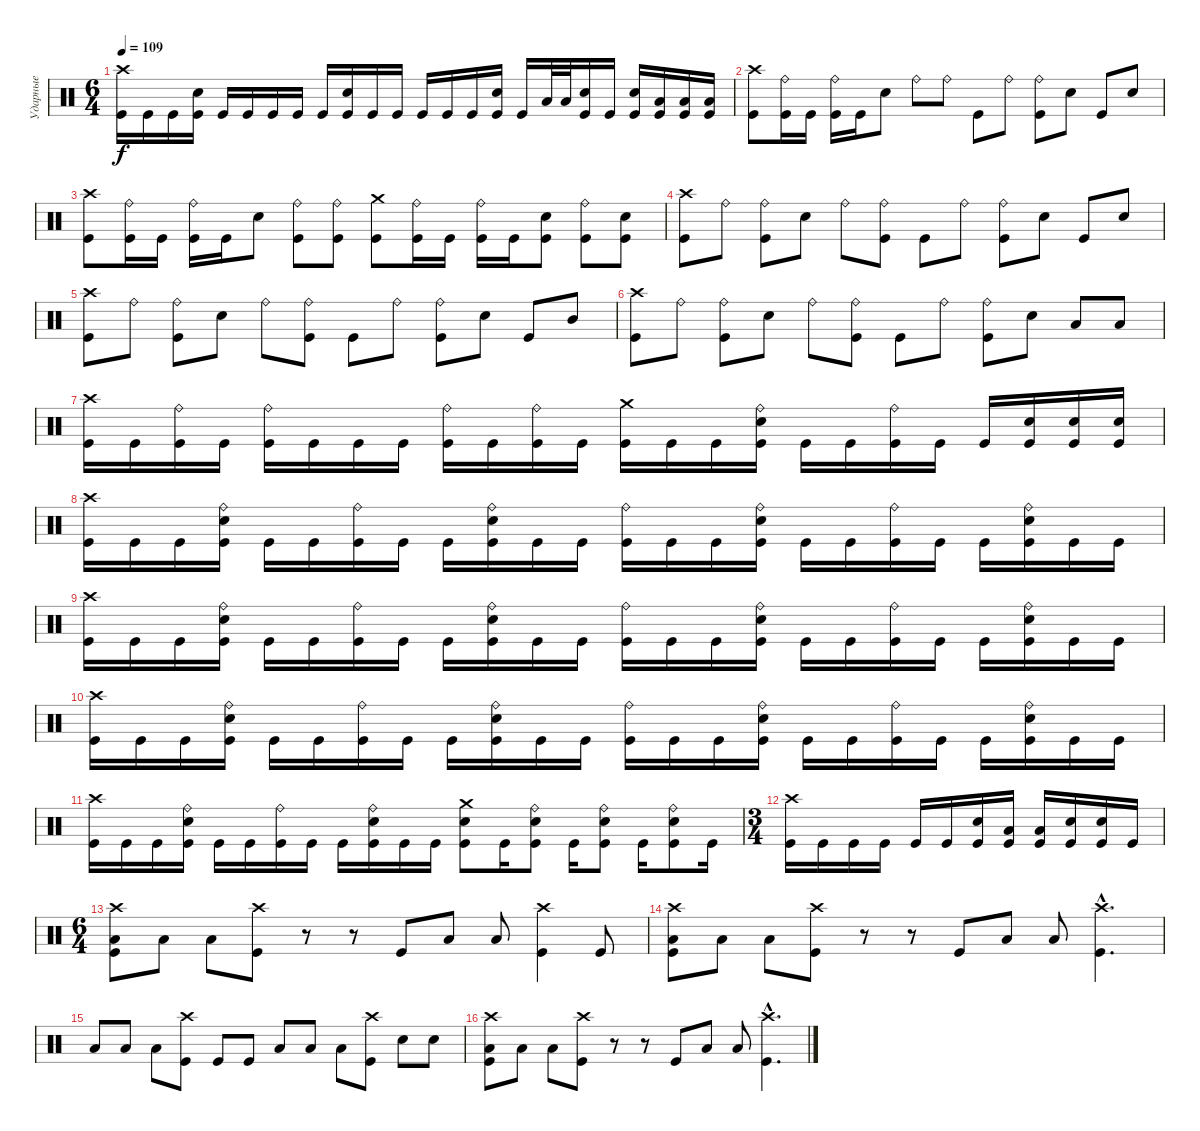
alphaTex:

\track ("Ударные" "Ударные") {instrument percussion}
\staff {score}
\articulation defaults
\ts (6 4)
\tempo 109
\clef neutral
\ks c
("Crash high (hit)" "Kick (hit)").16{dy f} "Kick (hit)".16 "Kick (hit)".16 ("Electric Snare (hit)" "Kick (hit)").16 "Kick (hit)".16 "Kick (hit)".16 "Kick (hit)".16 "Kick (hit)".16 "Kick (hit)".16 ("Electric Snare (hit)" "Kick (hit)").16 "Kick (hit)".16 "Kick (hit)".16 "Kick (hit)".16 "Kick (hit)".16 "Kick (hit)".16 ("Electric Snare (hit)" "Kick (hit)").16 "Kick (hit)".16 "Low Tom (hit)".32 "Low Tom (hit)".32 ("Electric Snare (hit)" "Kick (hit)").16 "Kick (hit)".16 ("Electric Snare (hit)" "Kick (hit)").16 ("Low Tom (hit)" "Kick (hit)").16 ("Low Tom (hit)" "Kick (hit)").16 ("Low Tom (hit)" "Kick (hit)").16 |
("Kick (hit)" "Crash high (hit)").8 ("Ride (bell)" "Kick (hit)").16 "Kick (hit)".16 ("Ride (bell)" "Kick (hit)").16 "Kick (hit)".16 "Electric Snare (hit)".8 "Ride (bell)".8 "Ride (bell)".8 "Kick (hit)".8 "Ride (bell)".8 ("Ride (bell)" "Kick (hit)").8 "Electric Snare (hit)".8 "Kick (hit)".8 "Electric Snare (hit)".8 |
("Crash high (hit)" "Kick (hit)").8 ("Ride (bell)" "Kick (hit)").16 "Kick (hit)".16 ("Ride (bell)" "Kick (hit)").16 "Kick (hit)".16 "Electric Snare (hit)".8 ("Ride (bell)" "Kick (hit)").8 ("Ride (bell)" "Kick (hit)").8 ("Crash medium (hit)" "Kick (hit)").8 ("Ride (bell)" "Kick (hit)").16 "Kick (hit)".16 ("Ride (bell)" "Kick (hit)").16 "Kick (hit)".16 ("Electric Snare (hit)" "Kick (hit)").8 ("Ride (bell)" "Kick (hit)").8 ("Electric Snare (hit)" "Kick (hit)").8 |
("Kick (hit)" "Crash high (hit)").8 "Ride (bell)".8 ("Ride (bell)" "Kick (hit)").8 "Electric Snare (hit)".8 "Ride (bell)".8 ("Ride (bell)" "Kick (hit)").8 "Kick (hit)".8 "Ride (bell)".8 ("Ride (bell)" "Kick (hit)").8 "Electric Snare (hit)".8 "Kick (hit)".8 "Electric Snare (hit)".8 |
("Kick (hit)" "Crash high (hit)").8 "Ride (bell)".8 ("Ride (bell)" "Kick (hit)").8 "Electric Snare (hit)".8 "Ride (bell)".8 ("Ride (bell)" "Kick (hit)").8 "Kick (hit)".8 "Ride (bell)".8 ("Ride (bell)" "Kick (hit)").8 "Electric Snare (hit)".8 "Kick (hit)".8 "Mid Tom (hit)".8 |
("Kick (hit)" "Crash high (hit)").8 "Ride (bell)".8 ("Ride (bell)" "Kick (hit)").8 "Electric Snare (hit)".8 "Ride (bell)".8 ("Ride (bell)" "Kick (hit)").8 "Kick (hit)".8 "Ride (bell)".8 ("Ride (bell)" "Kick (hit)").8 "Electric Snare (hit)".8 "Low Tom (hit)".8 "Low Tom (hit)".8 |
("Crash high (hit)" "Kick (hit)").16 "Kick (hit)".16 ("Ride (bell)" "Kick (hit)").16 "Kick (hit)".16 ("Ride (bell)" "Kick (hit)").16 "Kick (hit)".16 "Kick (hit)".16 "Kick (hit)".16 ("Ride (bell)" "Kick (hit)").16 "Kick (hit)".16 ("Ride (bell)" "Kick (hit)").16 "Kick (hit)".16 ("Crash medium (hit)" "Kick (hit)").16 "Kick (hit)".16 "Kick (hit)".16 ("Ride (bell)" "Electric Snare (hit)" "Kick (hit)").16 "Kick (hit)".16 "Kick (hit)".16 ("Ride (bell)" "Kick (hit)").16 "Kick (hit)".16 "Kick (hit)".16 ("Electric Snare (hit)" "Kick (hit)").16 ("Electric Snare (hit)" "Kick (hit)").16 ("Electric Snare (hit)" "Kick (hit)").16 |
("Crash high (hit)" "Kick (hit)").16 "Kick (hit)".16 "Kick (hit)".16 ("Ride (bell)" "Electric Snare (hit)" "Kick (hit)").16 "Kick (hit)".16 "Kick (hit)".16 ("Ride (bell)" "Kick (hit)").16 "Kick (hit)".16 "Kick (hit)".16 ("Ride (bell)" "Electric Snare (hit)" "Kick (hit)").16 "Kick (hit)".16 "Kick (hit)".16 ("Ride (bell)" "Kick (hit)").16 "Kick (hit)".16 "Kick (hit)".16 ("Ride (bell)" "Electric Snare (hit)" "Kick (hit)").16 "Kick (hit)".16 "Kick (hit)".16 ("Ride (bell)" "Kick (hit)").16 "Kick (hit)".16 "Kick (hit)".16 ("Ride (bell)" "Electric Snare (hit)" "Kick (hit)").16 "Kick (hit)".16 "Kick (hit)".16 |
("Crash high (hit)" "Kick (hit)").16 "Kick (hit)".16 "Kick (hit)".16 ("Ride (bell)" "Electric Snare (hit)" "Kick (hit)").16 "Kick (hit)".16 "Kick (hit)".16 ("Ride (bell)" "Kick (hit)").16 "Kick (hit)".16 "Kick (hit)".16 ("Ride (bell)" "Electric Snare (hit)" "Kick (hit)").16 "Kick (hit)".16 "Kick (hit)".16 ("Ride (bell)" "Kick (hit)").16 "Kick (hit)".16 "Kick (hit)".16 ("Ride (bell)" "Electric Snare (hit)" "Kick (hit)").16 "Kick (hit)".16 "Kick (hit)".16 ("Ride (bell)" "Kick (hit)").16 "Kick (hit)".16 "Kick (hit)".16 ("Ride (bell)" "Electric Snare (hit)" "Kick (hit)").16 "Kick (hit)".16 "Kick (hit)".16 |
("Crash high (hit)" "Kick (hit)").16 "Kick (hit)".16 "Kick (hit)".16 ("Ride (bell)" "Electric Snare (hit)" "Kick (hit)").16 "Kick (hit)".16 "Kick (hit)".16 ("Ride (bell)" "Kick (hit)").16 "Kick (hit)".16 "Kick (hit)".16 ("Ride (bell)" "Electric Snare (hit)" "Kick (hit)").16 "Kick (hit)".16 "Kick (hit)".16 ("Ride (bell)" "Kick (hit)").16 "Kick (hit)".16 "Kick (hit)".16 ("Ride (bell)" "Electric Snare (hit)" "Kick (hit)").16 "Kick (hit)".16 "Kick (hit)".16 ("Ride (bell)" "Kick (hit)").16 "Kick (hit)".16 "Kick (hit)".16 ("Ride (bell)" "Electric Snare (hit)" "Kick (hit)").16 "Kick (hit)".16 "Kick (hit)".16 |
("Crash high (hit)" "Kick (hit)").16 "Kick (hit)".16 "Kick (hit)".16 ("Ride (bell)" "Electric Snare (hit)" "Kick (hit)").16 "Kick (hit)".16 "Kick (hit)".16 ("Ride (bell)" "Kick (hit)").16 "Kick (hit)".16 "Kick (hit)".16 ("Ride (bell)" "Electric Snare (hit)" "Kick (hit)").16 "Kick (hit)".16 "Kick (hit)".16 ("Crash medium (hit)" "Electric Snare (hit)" "Kick (hit)").8 "Kick (hit)".16 ("Ride (bell)" "Electric Snare (hit)" "Kick (hit)").8 "Kick (hit)".16 ("Ride (bell)" "Electric Snare (hit)" "Kick (hit)").8 "Kick (hit)".16 ("Ride (bell)" "Electric Snare (hit)" "Kick (hit)").8 "Kick (hit)".16 |
\ts (3 4)
("Crash high (hit)" "Kick (hit)").16 "Kick (hit)".16 "Kick (hit)".16 "Kick (hit)".16 "Kick (hit)".16 "Kick (hit)".16 ("Electric Snare (hit)" "Kick (hit)").16 ("Low Tom (hit)" "Kick (hit)").16 ("Low Tom (hit)" "Kick (hit)").16 ("Electric Snare (hit)" "Kick (hit)").16 ("Electric Snare (hit)" "Kick (hit)").16 "Kick (hit)".16 |
\ts (6 4)
("Crash high (hit)" "Low Tom (hit)" "Kick (hit)").8 "Low Tom (hit)".8 "Low Tom (hit)".8 ("Kick (hit)" "Crash high (hit)").8 r.8 r.8 "Kick (hit)".8 "Low Tom (hit)".8 "Low Tom (hit)".8 ("Crash high (hit)" "Kick (hit)").4 "Kick (hit)".8 |
("Crash high (hit)" "Low Tom (hit)" "Kick (hit)").8 "Low Tom (hit)".8 "Low Tom (hit)".8 ("Kick (hit)" "Crash high (hit)").8 r.8 r.8 "Kick (hit)".8 "Low Tom (hit)".8 "Low Tom (hit)".8 ("Crash high (hit)"{hac} "Kick (hit)"{hac}).4{d} |
"Low Tom (hit)".8 "Low Tom (hit)".8 "Low Tom (hit)".8 ("Kick (hit)" "Crash high (hit)").8 "Kick (hit)".8 "Kick (hit)".8 "Low Tom (hit)".8 "Low Tom (hit)".8 "Low Tom (hit)".8 ("Crash high (hit)" "Kick (hit)").8 "Electric Snare (hit)".8 "Electric Snare (hit)".8 |
("Crash high (hit)" "Low Tom (hit)" "Kick (hit)").8 "Low Tom (hit)".8 "Low Tom (hit)".8 ("Kick (hit)" "Crash high (hit)").8 r.8 r.8 "Kick (hit)".8 "Low Tom (hit)".8 "Low Tom (hit)".8 ("Crash high (hit)"{hac} "Kick (hit)"{hac}).4{d}
